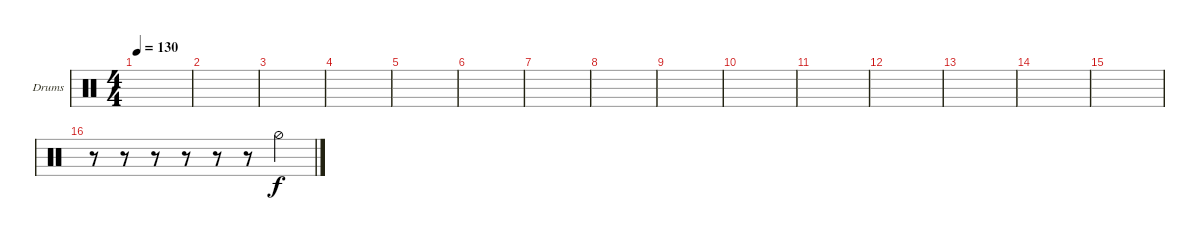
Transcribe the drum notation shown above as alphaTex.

\defaultSystemsLayout 4
\bracketExtendMode groupsimilarinstruments
\firstSystemTrackNameOrientation horizontal
\otherSystemsTrackNameOrientation horizontal
\track ("Drumkit" "Drums") {instrument percussion}
\staff {score}
\articulation defaults
\ts (4 4)
\tempo 130
\clef neutral
\scale
0.333333
\ks c
|
\scale
0.333333 |
\scale
0.333333 |
\scale
0.333333 |
\scale
0.333333 |
\scale
0.333333 |
\scale
0.333333 |
\scale
0.333333 |
\scale
0.333333 |
\scale
0.333333 |
\scale
0.333333 |
\scale
0.333333 |
\scale
0.333333 |
\scale
0.333333 |
\scale
0.333333 |
\scale
0.333333 r.8 r.8 r.8 r.8 r.8 r.8 "Hi-Hat (half)".4
